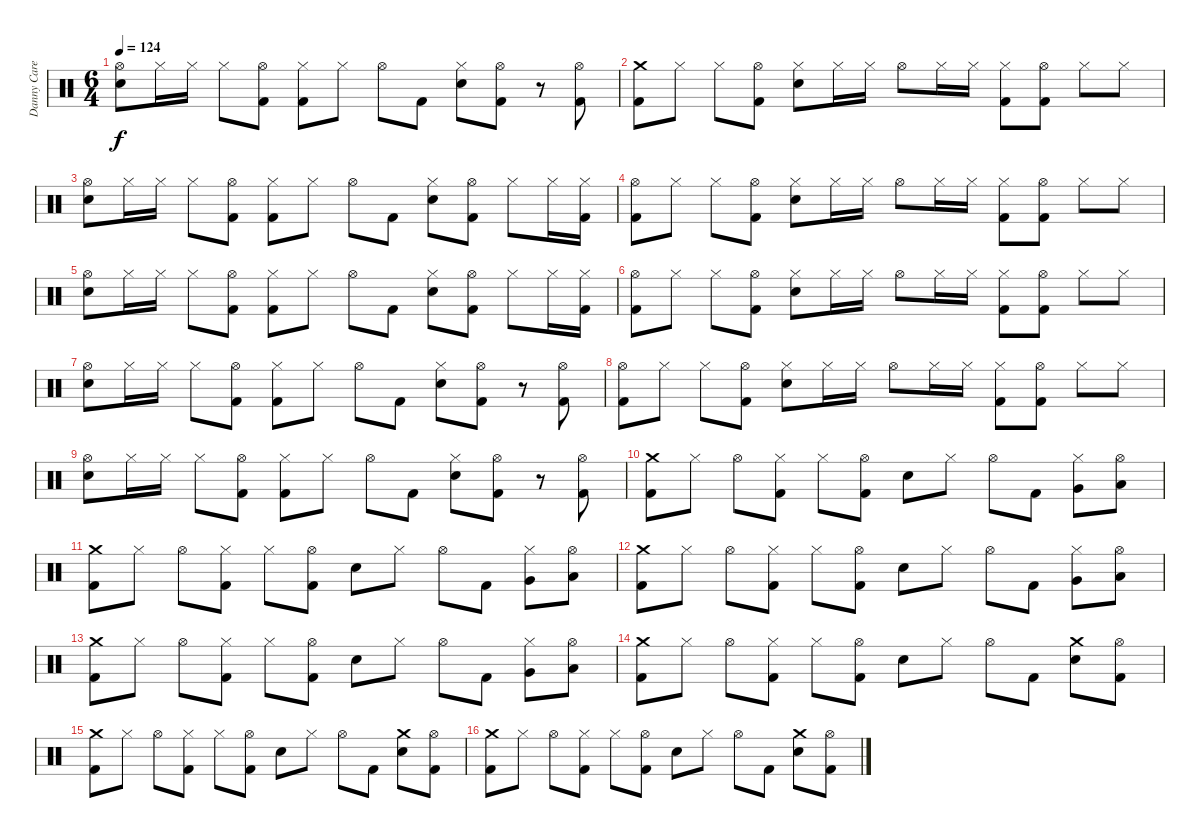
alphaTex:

\track ("Danny Carey" "Danny Care") {instrument percussion}
\staff {score}
\articulation defaults
\ts (6 4)
\tempo 124
\clef neutral
\ks c
("Hi-Hat (open)" "Electric Snare (hit)").8{dy f} "Hi-Hat (closed)".16 "Hi-Hat (closed)".16 "Hi-Hat (closed)".8 ("Hi-Hat (open)" "Kick (hit) 2").8 ("Hi-Hat (closed)" "Kick (hit) 2").8 "Hi-Hat (closed)".8 "Hi-Hat (open)".8 "Kick (hit) 2".8 ("Hi-Hat (closed)" "Electric Snare (hit)").8 ("Hi-Hat (open)" "Kick (hit) 2").8 r.8 ("Hi-Hat (open)" "Kick (hit) 2").8 |
("Crash medium (hit)" "Kick (hit) 2").8 "Hi-Hat (closed)".8 "Hi-Hat (closed)".8 ("Hi-Hat (open)" "Kick (hit) 2").8 ("Hi-Hat (closed)" "Electric Snare (hit)").8 "Hi-Hat (closed)".16 "Hi-Hat (closed)".16 "Hi-Hat (open)".8 "Hi-Hat (closed)".16 "Hi-Hat (closed)".16 ("Hi-Hat (closed)" "Kick (hit) 2").8 ("Hi-Hat (open)" "Kick (hit) 2").8 "Hi-Hat (closed)".8 "Hi-Hat (closed)".8 |
("Hi-Hat (open)" "Electric Snare (hit)").8 "Hi-Hat (closed)".16 "Hi-Hat (closed)".16 "Hi-Hat (closed)".8 ("Hi-Hat (open)" "Kick (hit) 2").8 ("Hi-Hat (closed)" "Kick (hit) 2").8 "Hi-Hat (closed)".8 "Hi-Hat (open)".8 "Kick (hit) 2".8 ("Hi-Hat (closed)" "Electric Snare (hit)").8 ("Hi-Hat (open)" "Kick (hit) 2").8 "Hi-Hat (closed)".8 "Hi-Hat (closed)".16 ("Hi-Hat (closed)" "Kick (hit) 2").16 |
("Hi-Hat (open)" "Kick (hit) 2").8 "Hi-Hat (closed)".8 "Hi-Hat (closed)".8 ("Hi-Hat (open)" "Kick (hit) 2").8 ("Hi-Hat (closed)" "Electric Snare (hit)").8 "Hi-Hat (closed)".16 "Hi-Hat (closed)".16 "Hi-Hat (open)".8 "Hi-Hat (closed)".16 "Hi-Hat (closed)".16 ("Hi-Hat (closed)" "Kick (hit) 2").8 ("Hi-Hat (open)" "Kick (hit) 2").8 "Hi-Hat (closed)".8 "Hi-Hat (closed)".8 |
("Hi-Hat (open)" "Electric Snare (hit)").8 "Hi-Hat (closed)".16 "Hi-Hat (closed)".16 "Hi-Hat (closed)".8 ("Hi-Hat (open)" "Kick (hit) 2").8 ("Hi-Hat (closed)" "Kick (hit) 2").8 "Hi-Hat (closed)".8 "Hi-Hat (open)".8 "Kick (hit) 2".8 ("Hi-Hat (closed)" "Electric Snare (hit)").8 ("Hi-Hat (open)" "Kick (hit) 2").8 "Hi-Hat (closed)".8 "Hi-Hat (closed)".16 ("Hi-Hat (closed)" "Kick (hit) 2").16 |
("Hi-Hat (open)" "Kick (hit) 2").8 "Hi-Hat (closed)".8 "Hi-Hat (closed)".8 ("Hi-Hat (open)" "Kick (hit) 2").8 ("Hi-Hat (closed)" "Electric Snare (hit)").8 "Hi-Hat (closed)".16 "Hi-Hat (closed)".16 "Hi-Hat (open)".8 "Hi-Hat (closed)".16 "Hi-Hat (closed)".16 ("Hi-Hat (closed)" "Kick (hit) 2").8 ("Hi-Hat (open)" "Kick (hit) 2").8 "Hi-Hat (closed)".8 "Hi-Hat (closed)".8 |
("Hi-Hat (open)" "Electric Snare (hit)").8 "Hi-Hat (closed)".16 "Hi-Hat (closed)".16 "Hi-Hat (closed)".8 ("Hi-Hat (open)" "Kick (hit) 2").8 ("Hi-Hat (closed)" "Kick (hit) 2").8 "Hi-Hat (closed)".8 "Hi-Hat (open)".8 "Kick (hit) 2".8 ("Hi-Hat (closed)" "Electric Snare (hit)").8 ("Hi-Hat (open)" "Kick (hit) 2").8 r.8 ("Hi-Hat (open)" "Kick (hit) 2").8 |
("Hi-Hat (open)" "Kick (hit) 2").8 "Hi-Hat (closed)".8 "Hi-Hat (closed)".8 ("Hi-Hat (open)" "Kick (hit) 2").8 ("Hi-Hat (closed)" "Electric Snare (hit)").8 "Hi-Hat (closed)".16 "Hi-Hat (closed)".16 "Hi-Hat (open)".8 "Hi-Hat (closed)".16 "Hi-Hat (closed)".16 ("Hi-Hat (closed)" "Kick (hit) 2").8 ("Hi-Hat (open)" "Kick (hit) 2").8 "Hi-Hat (closed)".8 "Hi-Hat (closed)".8 |
("Hi-Hat (open)" "Electric Snare (hit)").8 "Hi-Hat (closed)".16 "Hi-Hat (closed)".16 "Hi-Hat (closed)".8 ("Hi-Hat (open)" "Kick (hit) 2").8 ("Hi-Hat (closed)" "Kick (hit) 2").8 "Hi-Hat (closed)".8 "Hi-Hat (open)".8 "Kick (hit) 2".8 ("Hi-Hat (closed)" "Electric Snare (hit)").8 ("Hi-Hat (open)" "Kick (hit) 2").8 r.8 ("Hi-Hat (open)" "Kick (hit) 2").8 |
("Crash medium (hit)" "Kick (hit) 2").8 "Hi-Hat (closed)".8 "Hi-Hat (open)".8 ("Hi-Hat (closed)" "Kick (hit) 2").8 "Hi-Hat (closed)".8 ("Hi-Hat (open)" "Kick (hit) 2").8 "Electric Snare (hit)".8 "Hi-Hat (closed)".8 "Hi-Hat (open)".8 "Kick (hit) 2".8 ("Hi-Hat (closed)" "Very Low Tom (hit)").8 ("Hi-Hat (open)" "Low Floor Tom (hit)").8 |
("Crash medium (hit)" "Kick (hit) 2").8 "Hi-Hat (closed)".8 "Hi-Hat (open)".8 ("Hi-Hat (closed)" "Kick (hit) 2").8 "Hi-Hat (closed)".8 ("Hi-Hat (open)" "Kick (hit) 2").8 "Electric Snare (hit)".8 "Hi-Hat (closed)".8 "Hi-Hat (open)".8 "Kick (hit) 2".8 ("Hi-Hat (closed)" "Very Low Tom (hit)").8 ("Hi-Hat (open)" "Low Floor Tom (hit)").8 |
("Crash medium (hit)" "Kick (hit) 2").8 "Hi-Hat (closed)".8 "Hi-Hat (open)".8 ("Hi-Hat (closed)" "Kick (hit) 2").8 "Hi-Hat (closed)".8 ("Hi-Hat (open)" "Kick (hit) 2").8 "Electric Snare (hit)".8 "Hi-Hat (closed)".8 "Hi-Hat (open)".8 "Kick (hit) 2".8 ("Hi-Hat (closed)" "Very Low Tom (hit)").8 ("Hi-Hat (open)" "Low Floor Tom (hit)").8 |
("Crash medium (hit)" "Kick (hit) 2").8 "Hi-Hat (closed)".8 "Hi-Hat (open)".8 ("Hi-Hat (closed)" "Kick (hit) 2").8 "Hi-Hat (closed)".8 ("Hi-Hat (open)" "Kick (hit) 2").8 "Electric Snare (hit)".8 "Hi-Hat (closed)".8 "Hi-Hat (open)".8 "Kick (hit) 2".8 ("Hi-Hat (closed)" "Very Low Tom (hit)").8 ("Hi-Hat (open)" "Low Floor Tom (hit)").8 |
("Crash medium (hit)" "Kick (hit) 2").8 "Hi-Hat (closed)".8 "Hi-Hat (open)".8 ("Hi-Hat (closed)" "Kick (hit) 2").8 "Hi-Hat (closed)".8 ("Hi-Hat (open)" "Kick (hit) 2").8 "Electric Snare (hit)".8 "Hi-Hat (closed)".8 "Hi-Hat (open)".8 "Kick (hit) 2".8 ("Crash medium (hit)" "Electric Snare (hit)").8 ("Hi-Hat (open)" "Kick (hit) 2").8 |
("Crash medium (hit)" "Kick (hit) 2").8 "Hi-Hat (closed)".8 "Hi-Hat (open)".8 ("Hi-Hat (closed)" "Kick (hit) 2").8 "Hi-Hat (closed)".8 ("Hi-Hat (open)" "Kick (hit) 2").8 "Electric Snare (hit)".8 "Hi-Hat (closed)".8 "Hi-Hat (open)".8 "Kick (hit) 2".8 ("Crash medium (hit)" "Electric Snare (hit)").8 ("Hi-Hat (open)" "Kick (hit) 2").8 |
("Crash medium (hit)" "Kick (hit) 2").8 "Hi-Hat (closed)".8 "Hi-Hat (open)".8 ("Hi-Hat (closed)" "Kick (hit) 2").8 "Hi-Hat (closed)".8 ("Hi-Hat (open)" "Kick (hit) 2").8 "Electric Snare (hit)".8 "Hi-Hat (closed)".8 "Hi-Hat (open)".8 "Kick (hit) 2".8 ("Crash medium (hit)" "Electric Snare (hit)").8 ("Hi-Hat (open)" "Kick (hit) 2").8
